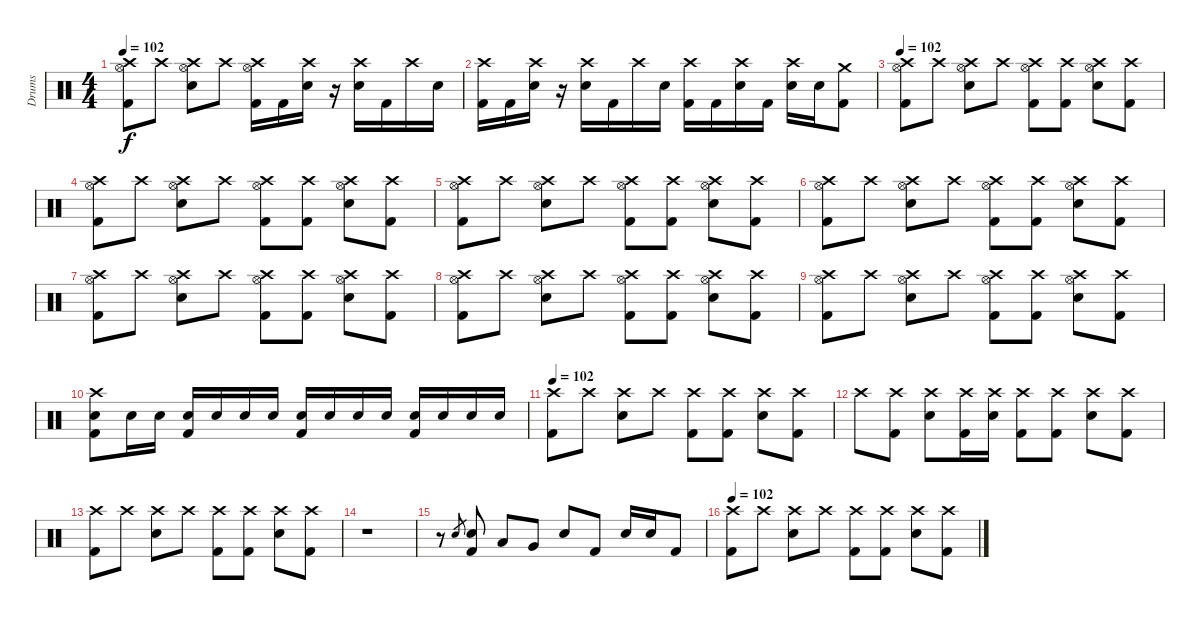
\track ("Drums" "Drums") {instrument percussion}
\staff {score}
\articulation defaults
\ts (4 4)
\tempo 102
\clef neutral
\ks c
("Crash high (hit)" "Hi-Hat (open)" "Kick (hit) 2").8{dy f} "Crash high (hit)".8 ("Crash high (hit)" "Hi-Hat (open)" "Electric Snare (hit)").8 "Crash high (hit)".8 ("Crash high (hit)" "Hi-Hat (open)" "Kick (hit) 2").16 "Kick (hit) 2".16 ("Crash high (hit)" "Electric Snare (hit)").16 r.16 ("Crash high (hit)" "Electric Snare (hit)").16 "Kick (hit) 2".16 "Crash high (hit)".16 "Electric Snare (hit)".16 |
("Crash high (hit)" "Kick (hit) 2").16 "Kick (hit) 2".16 ("Crash high (hit)" "Electric Snare (hit)").16 r.16 ("Crash high (hit)" "Electric Snare (hit)").16 "Kick (hit) 2".16 "Crash high (hit)".16 "Electric Snare (hit)".16 ("Crash high (hit)" "Kick (hit) 2").16 "Kick (hit) 2".16 ("Crash high (hit)" "Electric Snare (hit)").16 "Kick (hit) 2".16 ("Crash high (hit)" "Electric Snare (hit)").16 "Electric Snare (hit)".16 ("Crash medium (hit)" "Kick (hit) 2").8 |
\tempo 102
("Crash high (hit)" "Hi-Hat (open)" "Kick (hit) 2").8 "Crash high (hit)".8 ("Crash high (hit)" "Hi-Hat (open)" "Electric Snare (hit)").8 "Crash high (hit)".8 ("Crash high (hit)" "Hi-Hat (open)" "Kick (hit) 2").8 ("Crash high (hit)" "Kick (hit) 2").8 ("Crash high (hit)" "Hi-Hat (open)" "Electric Snare (hit)").8 ("Crash high (hit)" "Kick (hit) 2").8 |
("Crash high (hit)" "Hi-Hat (open)" "Kick (hit) 2").8 "Crash high (hit)".8 ("Crash high (hit)" "Hi-Hat (open)" "Electric Snare (hit)").8 "Crash high (hit)".8 ("Crash high (hit)" "Hi-Hat (open)" "Kick (hit) 2").8 ("Crash high (hit)" "Kick (hit) 2").8 ("Crash high (hit)" "Hi-Hat (open)" "Electric Snare (hit)").8 ("Crash high (hit)" "Kick (hit) 2").8 |
("Crash high (hit)" "Hi-Hat (open)" "Kick (hit) 2").8 "Crash high (hit)".8 ("Crash high (hit)" "Hi-Hat (open)" "Electric Snare (hit)").8 "Crash high (hit)".8 ("Crash high (hit)" "Hi-Hat (open)" "Kick (hit) 2").8 ("Crash high (hit)" "Kick (hit) 2").8 ("Crash high (hit)" "Hi-Hat (open)" "Electric Snare (hit)").8 ("Crash high (hit)" "Kick (hit) 2").8 |
("Crash high (hit)" "Hi-Hat (open)" "Kick (hit) 2").8 "Crash high (hit)".8 ("Crash high (hit)" "Hi-Hat (open)" "Electric Snare (hit)").8 "Crash high (hit)".8 ("Crash high (hit)" "Hi-Hat (open)" "Kick (hit) 2").8 ("Crash high (hit)" "Kick (hit) 2").8 ("Crash high (hit)" "Hi-Hat (open)" "Electric Snare (hit)").8 ("Crash high (hit)" "Kick (hit) 2").8 |
("Crash high (hit)" "Hi-Hat (open)" "Kick (hit) 2").8 "Crash high (hit)".8 ("Crash high (hit)" "Hi-Hat (open)" "Electric Snare (hit)").8 "Crash high (hit)".8 ("Crash high (hit)" "Hi-Hat (open)" "Kick (hit) 2").8 ("Crash high (hit)" "Kick (hit) 2").8 ("Crash high (hit)" "Hi-Hat (open)" "Electric Snare (hit)").8 ("Crash high (hit)" "Kick (hit) 2").8 |
("Crash high (hit)" "Hi-Hat (open)" "Kick (hit) 2").8 "Crash high (hit)".8 ("Crash high (hit)" "Hi-Hat (open)" "Electric Snare (hit)").8 "Crash high (hit)".8 ("Crash high (hit)" "Hi-Hat (open)" "Kick (hit) 2").8 ("Crash high (hit)" "Kick (hit) 2").8 ("Crash high (hit)" "Hi-Hat (open)" "Electric Snare (hit)").8 ("Crash high (hit)" "Kick (hit) 2").8 |
("Crash high (hit)" "Hi-Hat (open)" "Kick (hit) 2").8 "Crash high (hit)".8 ("Crash high (hit)" "Hi-Hat (open)" "Electric Snare (hit)").8 "Crash high (hit)".8 ("Crash high (hit)" "Hi-Hat (open)" "Kick (hit) 2").8 ("Crash high (hit)" "Kick (hit) 2").8 ("Crash high (hit)" "Hi-Hat (open)" "Electric Snare (hit)").8 ("Crash high (hit)" "Kick (hit) 2").8 |
("Crash high (hit)" "Electric Snare (hit)" "Kick (hit) 2").8 "Electric Snare (hit)".16 "Electric Snare (hit)".16 ("Electric Snare (hit)" "Kick (hit) 2").16 "Electric Snare (hit)".16 "Electric Snare (hit)".16 "Electric Snare (hit)".16 ("Electric Snare (hit)" "Kick (hit) 2").16 "Electric Snare (hit)".16 "Electric Snare (hit)".16 "Electric Snare (hit)".16 ("Electric Snare (hit)" "Kick (hit) 2").16 "Electric Snare (hit)".16 "Electric Snare (hit)".16 "Electric Snare (hit)".16 |
\tempo 102
("Crash high (hit)" "Kick (hit) 2").8 "Crash high (hit)".8 ("Crash high (hit)" "Electric Snare (hit)").8 "Crash high (hit)".8 ("Crash high (hit)" "Kick (hit) 2").8 ("Crash high (hit)" "Kick (hit) 2").8 ("Crash high (hit)" "Electric Snare (hit)").8 ("Crash high (hit)" "Kick (hit) 2").8 |
"Crash high (hit)".8 ("Crash high (hit)" "Kick (hit) 2").8 ("Crash high (hit)" "Electric Snare (hit)").8 ("Crash high (hit)" "Kick (hit) 2").16 ("Crash high (hit)" "Electric Snare (hit)").16 ("Crash high (hit)" "Kick (hit) 2").8 ("Crash high (hit)" "Kick (hit) 2").8 ("Crash high (hit)" "Electric Snare (hit)").8 ("Crash high (hit)" "Kick (hit) 2").8 |
("Crash high (hit)" "Kick (hit) 2").8 "Crash high (hit)".8 ("Crash high (hit)" "Electric Snare (hit)").8 "Crash high (hit)".8 ("Crash high (hit)" "Kick (hit) 2").8 ("Crash high (hit)" "Kick (hit) 2").8 ("Crash high (hit)" "Electric Snare (hit)").8 ("Crash high (hit)" "Kick (hit) 2").8 |
r.1 |
r.8 "Electric Snare (hit)".8{gr} ("Electric Snare (hit)" "Kick (hit) 2").8 "Low Tom (hit)".8 "Very Low Tom (hit)".8 "Electric Snare (hit)".8 "Kick (hit) 2".8 "Electric Snare (hit)".16 "Electric Snare (hit)".16 "Kick (hit) 2".8 |
\tempo 102
("Crash high (hit)" "Kick (hit) 2").8 "Crash high (hit)".8 ("Crash high (hit)" "Electric Snare (hit)").8 "Crash high (hit)".8 ("Crash high (hit)" "Kick (hit) 2").8 ("Crash high (hit)" "Kick (hit) 2").8 ("Crash high (hit)" "Electric Snare (hit)").8 ("Crash high (hit)" "Kick (hit) 2").8
